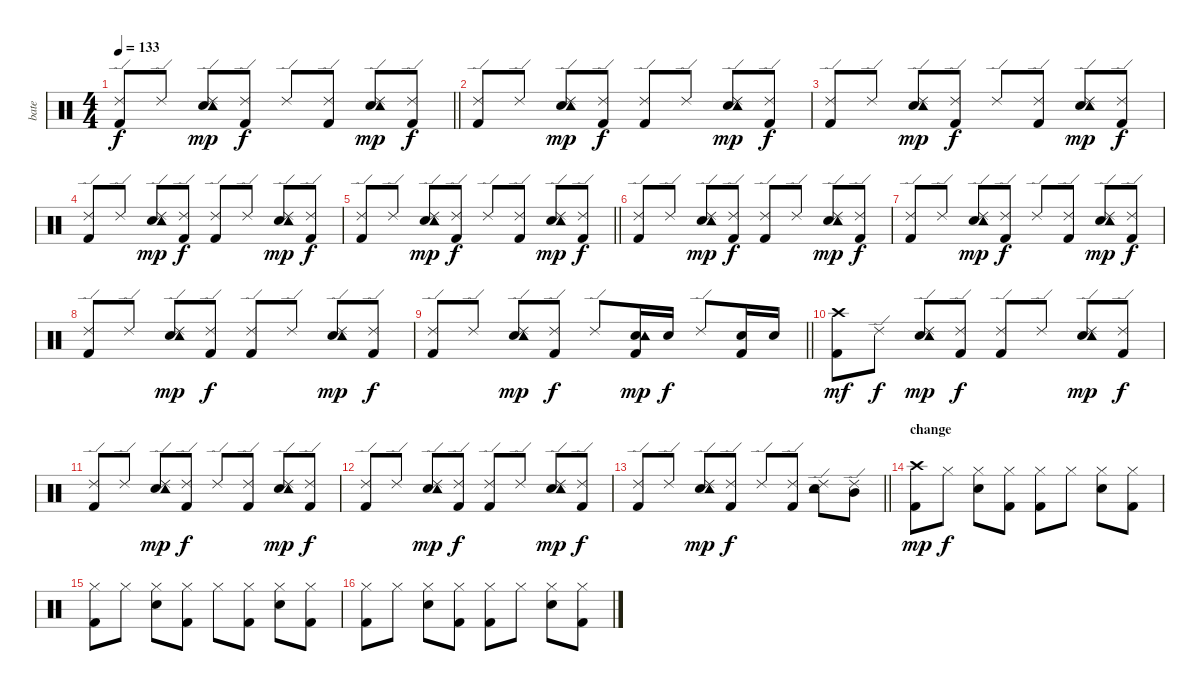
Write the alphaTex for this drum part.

\track ("bate" "bate") {instrument percussion}
\staff {score}
\articulation defaults
\ts (4 4)
\tempo 133
\clef neutral
\barLineRight lightlight
\ks c
("Ride (edge) 2" "Kick (hit) 2").8{dy f} "Ride (edge) 2".8 ("Ride (edge) 2" "Snare (hit) 2" "Tambourine (hit)").8{dy mp} ("Ride (edge) 2" "Kick (hit) 2").8{dy f} "Ride (edge) 2".8 ("Ride (edge) 2" "Kick (hit) 2").8 ("Ride (edge) 2" "Snare (hit) 2" "Tambourine (hit)").8{dy mp} ("Ride (edge) 2" "Kick (hit) 2").8{dy f} |
("Ride (edge) 2" "Kick (hit) 2").8 "Ride (edge) 2".8 ("Ride (edge) 2" "Snare (hit) 2" "Tambourine (hit)").8{dy mp} ("Ride (edge) 2" "Kick (hit) 2").8{dy f} ("Ride (edge) 2" "Kick (hit) 2").8 "Ride (edge) 2".8 ("Ride (edge) 2" "Snare (hit) 2" "Tambourine (hit)").8{dy mp} ("Ride (edge) 2" "Kick (hit) 2").8{dy f} |
("Ride (edge) 2" "Kick (hit) 2").8 "Ride (edge) 2".8 ("Ride (edge) 2" "Snare (hit) 2" "Tambourine (hit)").8{dy mp} ("Ride (edge) 2" "Kick (hit) 2").8{dy f} "Ride (edge) 2".8 ("Ride (edge) 2" "Kick (hit) 2").8 ("Ride (edge) 2" "Snare (hit) 2" "Tambourine (hit)").8{dy mp} ("Ride (edge) 2" "Kick (hit) 2").8{dy f} |
("Ride (edge) 2" "Kick (hit) 2").8 "Ride (edge) 2".8 ("Ride (edge) 2" "Snare (hit) 2" "Tambourine (hit)").8{dy mp} ("Ride (edge) 2" "Kick (hit) 2").8{dy f} ("Ride (edge) 2" "Kick (hit) 2").8 "Ride (edge) 2".8 ("Ride (edge) 2" "Snare (hit) 2" "Tambourine (hit)").8{dy mp} ("Ride (edge) 2" "Kick (hit) 2").8{dy f} |
\barLineRight lightlight
("Ride (edge) 2" "Kick (hit) 2").8 "Ride (edge) 2".8 ("Ride (edge) 2" "Snare (hit) 2" "Tambourine (hit)").8{dy mp} ("Ride (edge) 2" "Kick (hit) 2").8{dy f} "Ride (edge) 2".8 ("Ride (edge) 2" "Kick (hit) 2").8 ("Ride (edge) 2" "Snare (hit) 2" "Tambourine (hit)").8{dy mp} ("Ride (edge) 2" "Kick (hit) 2").8{dy f} |
("Ride (edge) 2" "Kick (hit) 2").8 "Ride (edge) 2".8 ("Ride (edge) 2" "Snare (hit) 2" "Tambourine (hit)").8{dy mp} ("Ride (edge) 2" "Kick (hit) 2").8{dy f} ("Ride (edge) 2" "Kick (hit) 2").8 "Ride (edge) 2".8 ("Ride (edge) 2" "Snare (hit) 2" "Tambourine (hit)").8{dy mp} ("Ride (edge) 2" "Kick (hit) 2").8{dy f} |
("Ride (edge) 2" "Kick (hit) 2").8 "Ride (edge) 2".8 ("Ride (edge) 2" "Snare (hit) 2" "Tambourine (hit)").8{dy mp} ("Ride (edge) 2" "Kick (hit) 2").8{dy f} "Ride (edge) 2".8 ("Ride (edge) 2" "Kick (hit) 2").8 ("Ride (edge) 2" "Snare (hit) 2" "Tambourine (hit)").8{dy mp} ("Ride (edge) 2" "Kick (hit) 2").8{dy f} |
("Ride (edge) 2" "Kick (hit) 2").8 "Ride (edge) 2".8 ("Ride (edge) 2" "Snare (hit) 2" "Tambourine (hit)").8{dy mp} ("Ride (edge) 2" "Kick (hit) 2").8{dy f} ("Ride (edge) 2" "Kick (hit) 2").8 "Ride (edge) 2".8 ("Ride (edge) 2" "Snare (hit) 2" "Tambourine (hit)").8{dy mp} ("Ride (edge) 2" "Kick (hit) 2").8{dy f} |
\barLineRight lightlight
("Ride (edge) 2" "Kick (hit) 2").8 "Ride (edge) 2".8 ("Ride (edge) 2" "Snare (hit) 2" "Tambourine (hit)").8{dy mp} ("Ride (edge) 2" "Kick (hit) 2").8{dy f} "Ride (edge) 2".8 ("Snare (hit) 2" "Tambourine (hit)" "Kick (hit) 2").16{dy mp} "Snare (hit) 2".16{dy f} "Ride (edge) 2".8 ("Snare (hit) 2" "Kick (hit) 2").16 "Snare (hit) 2".16 |
("Crash high (hit)" "Kick (hit) 2").8{dy mf} "Ride (edge) 2".8{dy f} ("Ride (edge) 2" "Snare (hit) 2" "Tambourine (hit)").8{dy mp} ("Ride (edge) 2" "Kick (hit) 2").8{dy f} ("Ride (edge) 2" "Kick (hit) 2").8 "Ride (edge) 2".8 ("Ride (edge) 2" "Snare (hit) 2" "Tambourine (hit)").8{dy mp} ("Ride (edge) 2" "Kick (hit) 2").8{dy f} |
("Ride (edge) 2" "Kick (hit) 2").8 "Ride (edge) 2".8 ("Ride (edge) 2" "Snare (hit) 2" "Tambourine (hit)").8{dy mp} ("Ride (edge) 2" "Kick (hit) 2").8{dy f} "Ride (edge) 2".8 ("Ride (edge) 2" "Kick (hit) 2").8 ("Ride (edge) 2" "Snare (hit) 2" "Tambourine (hit)").8{dy mp} ("Ride (edge) 2" "Kick (hit) 2").8{dy f} |
("Ride (edge) 2" "Kick (hit) 2").8 "Ride (edge) 2".8 ("Ride (edge) 2" "Snare (hit) 2" "Tambourine (hit)").8{dy mp} ("Ride (edge) 2" "Kick (hit) 2").8{dy f} ("Ride (edge) 2" "Kick (hit) 2").8 "Ride (edge) 2".8 ("Ride (edge) 2" "Snare (hit) 2" "Tambourine (hit)").8{dy mp} ("Ride (edge) 2" "Kick (hit) 2").8{dy f} |
\barLineRight lightlight
("Ride (edge) 2" "Kick (hit) 2").8 "Ride (edge) 2".8 ("Ride (edge) 2" "Snare (hit) 2" "Tambourine (hit)").8{dy mp} ("Ride (edge) 2" "Kick (hit) 2").8{dy f} "Ride (edge) 2".8 ("Ride (edge) 2" "Kick (hit) 2").8 ("Ride (edge) 2" "Snare (hit) 2" "Tambourine (hit)").8 ("Ride (edge) 2" "Mid Tom (hit)").8 |
\section ("" "change")
("Crash high (hit)" "Kick (hit) 2").8{dy mp} "Hi-Hat (closed)".8{dy f} ("Hi-Hat (closed)" "Snare (hit) 2").8 ("Hi-Hat (closed)" "Kick (hit) 2").8 ("Hi-Hat (closed)" "Kick (hit) 2").8 "Hi-Hat (closed)".8 ("Hi-Hat (closed)" "Snare (hit) 2").8 ("Hi-Hat (closed)" "Kick (hit) 2").8 |
("Hi-Hat (closed)" "Kick (hit) 2").8 "Hi-Hat (closed)".8 ("Hi-Hat (closed)" "Snare (hit) 2").8 ("Hi-Hat (closed)" "Kick (hit) 2").8 "Hi-Hat (closed)".8 ("Hi-Hat (closed)" "Kick (hit) 2").8 ("Hi-Hat (closed)" "Snare (hit) 2").8 ("Hi-Hat (closed)" "Kick (hit) 2").8 |
("Hi-Hat (closed)" "Kick (hit) 2").8 "Hi-Hat (closed)".8 ("Hi-Hat (closed)" "Snare (hit) 2").8 ("Hi-Hat (closed)" "Kick (hit) 2").8 ("Hi-Hat (closed)" "Kick (hit) 2").8 "Hi-Hat (closed)".8 ("Hi-Hat (closed)" "Snare (hit) 2").8 ("Hi-Hat (closed)" "Kick (hit) 2").8
